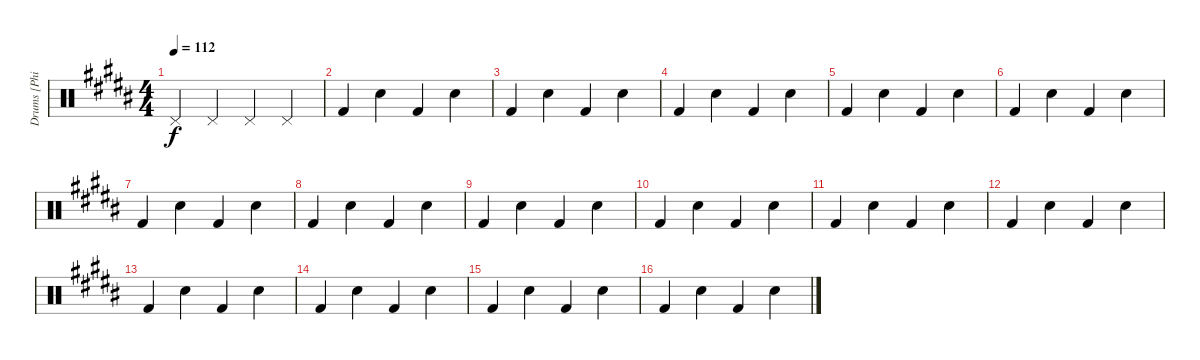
\track ("Drums [Phill]" "Drums [Phi") {instrument percussion}
\staff {score}
\articulation defaults
\ts (4 4)
\tempo 112
\clef neutral
\ks b "Pedal Hi-Hat (hit)".4{dy f} "Pedal Hi-Hat (hit)".4 "Pedal Hi-Hat (hit)".4 "Pedal Hi-Hat (hit)".4
|
"Kick (hit) 2".4 "Snare (hit) 2".4 "Kick (hit) 2".4 "Snare (hit) 2".4 |
"Kick (hit) 2".4 "Snare (hit) 2".4 "Kick (hit) 2".4 "Snare (hit) 2".4 |
"Kick (hit) 2".4 "Snare (hit) 2".4 "Kick (hit) 2".4 "Snare (hit) 2".4 |
"Kick (hit) 2".4 "Snare (hit) 2".4 "Kick (hit) 2".4 "Snare (hit) 2".4 |
"Kick (hit) 2".4 "Snare (hit) 2".4 "Kick (hit) 2".4 "Snare (hit) 2".4 |
"Kick (hit) 2".4 "Snare (hit) 2".4 "Kick (hit) 2".4 "Snare (hit) 2".4 |
"Kick (hit) 2".4 "Snare (hit) 2".4 "Kick (hit) 2".4 "Snare (hit) 2".4 |
"Kick (hit) 2".4 "Snare (hit) 2".4 "Kick (hit) 2".4 "Snare (hit) 2".4 |
"Kick (hit) 2".4 "Snare (hit) 2".4 "Kick (hit) 2".4 "Snare (hit) 2".4 |
"Kick (hit) 2".4 "Snare (hit) 2".4 "Kick (hit) 2".4 "Snare (hit) 2".4 |
"Kick (hit) 2".4 "Snare (hit) 2".4 "Kick (hit) 2".4 "Snare (hit) 2".4 |
"Kick (hit) 2".4 "Snare (hit) 2".4 "Kick (hit) 2".4 "Snare (hit) 2".4 |
"Kick (hit) 2".4 "Snare (hit) 2".4 "Kick (hit) 2".4 "Snare (hit) 2".4 |
"Kick (hit) 2".4 "Snare (hit) 2".4 "Kick (hit) 2".4 "Snare (hit) 2".4 |
"Kick (hit) 2".4 "Snare (hit) 2".4 "Kick (hit) 2".4 "Snare (hit) 2".4
